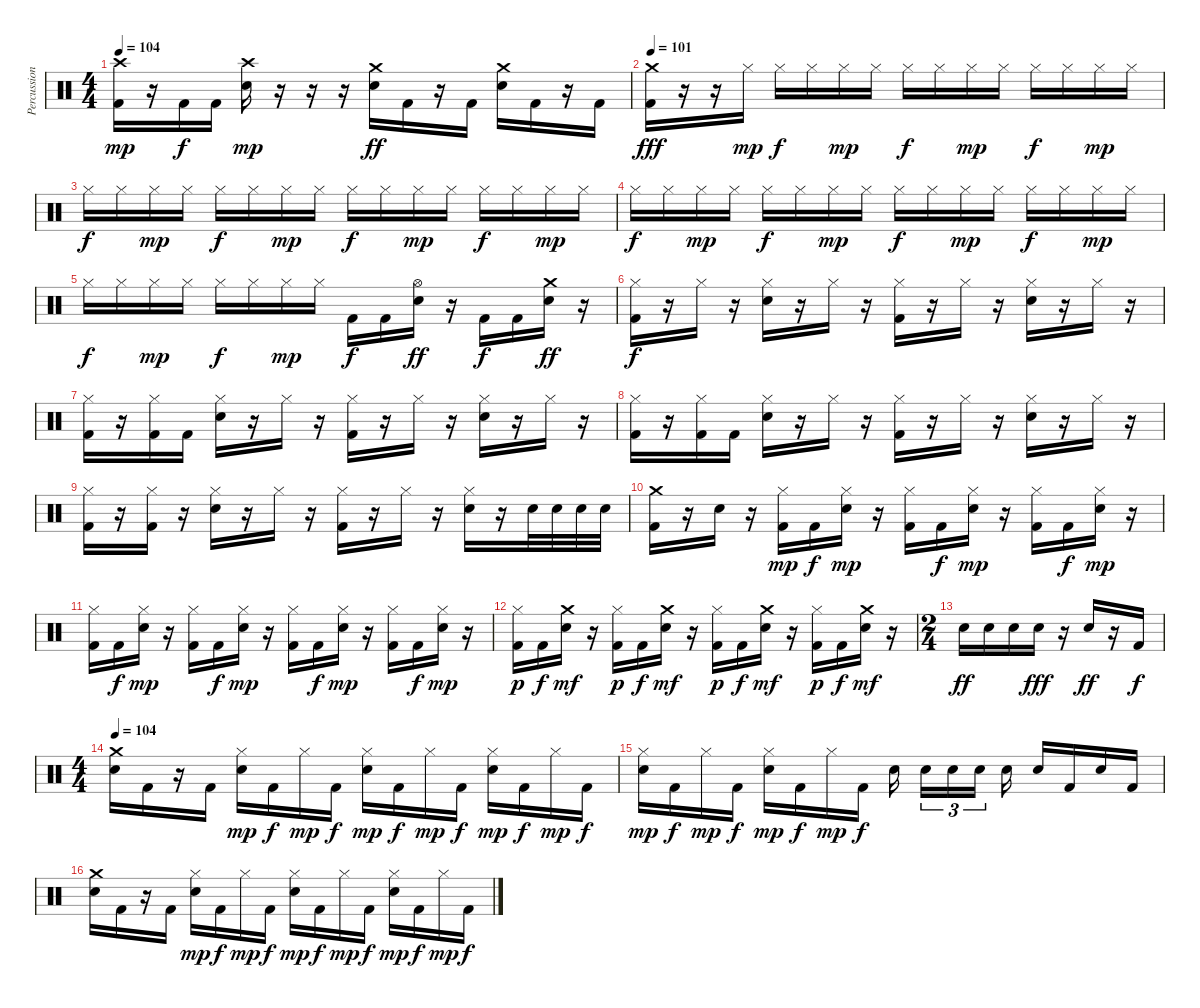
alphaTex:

\track ("Percussion" "Percussion") {instrument percussion}
\staff {score}
\articulation defaults
\ts (4 4)
\tempo 104
\clef neutral
\ks c
("Kick (hit) 2" "Crash high (hit)").16{dy mp} r.16 "Kick (hit) 2".16{dy f} "Kick (hit) 2".16 ("Electric Snare (hit)" "Crash high (hit)").16{dy mp} r.16 r.16 r.16 ("Electric Snare (hit)" "Crash medium (hit)").16{dy ff} "Kick (hit) 2".16 r.16 "Kick (hit) 2".16 ("Electric Snare (hit)" "Crash medium (hit)").16 "Kick (hit) 2".16 r.16 "Kick (hit) 2".16 |
\tempo 101
("Kick (hit) 2" "Crash medium (hit)").16{dy fff} r.16 r.16 "Hi-Hat (closed)".16{dy mp} "Hi-Hat (closed)".16{dy f} "Hi-Hat (closed)".16 "Hi-Hat (closed)".16{dy mp} "Hi-Hat (closed)".16 "Hi-Hat (closed)".16{dy f} "Hi-Hat (closed)".16 "Hi-Hat (closed)".16{dy mp} "Hi-Hat (closed)".16 "Hi-Hat (closed)".16{dy f} "Hi-Hat (closed)".16 "Hi-Hat (closed)".16{dy mp} "Hi-Hat (closed)".16 |
"Hi-Hat (closed)".16{dy f} "Hi-Hat (closed)".16 "Hi-Hat (closed)".16{dy mp} "Hi-Hat (closed)".16 "Hi-Hat (closed)".16{dy f} "Hi-Hat (closed)".16 "Hi-Hat (closed)".16{dy mp} "Hi-Hat (closed)".16 "Hi-Hat (closed)".16{dy f} "Hi-Hat (closed)".16 "Hi-Hat (closed)".16{dy mp} "Hi-Hat (closed)".16 "Hi-Hat (closed)".16{dy f} "Hi-Hat (closed)".16 "Hi-Hat (closed)".16{dy mp} "Hi-Hat (closed)".16 |
"Hi-Hat (closed)".16{dy f} "Hi-Hat (closed)".16 "Hi-Hat (closed)".16{dy mp} "Hi-Hat (closed)".16 "Hi-Hat (closed)".16{dy f} "Hi-Hat (closed)".16 "Hi-Hat (closed)".16{dy mp} "Hi-Hat (closed)".16 "Hi-Hat (closed)".16{dy f} "Hi-Hat (closed)".16 "Hi-Hat (closed)".16{dy mp} "Hi-Hat (closed)".16 "Hi-Hat (closed)".16{dy f} "Hi-Hat (closed)".16 "Hi-Hat (closed)".16{dy mp} "Hi-Hat (closed)".16 |
"Hi-Hat (closed)".16{dy f} "Hi-Hat (closed)".16 "Hi-Hat (closed)".16{dy mp} "Hi-Hat (closed)".16 "Hi-Hat (closed)".16{dy f} "Hi-Hat (closed)".16 "Hi-Hat (closed)".16{dy mp} "Hi-Hat (closed)".16 "Kick (hit) 2".16{dy f} "Kick (hit) 2".16 ("Electric Snare (hit)" "Hi-Hat (open)").16{dy ff} r.16 "Kick (hit) 2".16{dy f} "Kick (hit) 2".16 ("Electric Snare (hit)" "Crash medium (hit)").16{dy ff} r.16 |
("Kick (hit) 2" "Hi-Hat (closed)").16{dy f} r.16 "Hi-Hat (closed)".16 r.16 ("Electric Snare (hit)" "Hi-Hat (closed)").16 r.16 "Hi-Hat (closed)".16 r.16 ("Kick (hit) 2" "Hi-Hat (closed)").16 r.16 "Hi-Hat (closed)".16 r.16 ("Electric Snare (hit)" "Hi-Hat (closed)").16 r.16 "Hi-Hat (closed)".16 r.16 |
("Kick (hit) 2" "Hi-Hat (closed)").16 r.16 ("Kick (hit) 2" "Hi-Hat (closed)").16 "Kick (hit) 2".16 ("Electric Snare (hit)" "Hi-Hat (closed)").16 r.16 "Hi-Hat (closed)".16 r.16 ("Kick (hit) 2" "Hi-Hat (closed)").16 r.16 "Hi-Hat (closed)".16 r.16 ("Electric Snare (hit)" "Hi-Hat (closed)").16 r.16 "Hi-Hat (closed)".16 r.16 |
("Kick (hit) 2" "Hi-Hat (closed)").16 r.16 ("Kick (hit) 2" "Hi-Hat (closed)").16 "Kick (hit) 2".16 ("Electric Snare (hit)" "Hi-Hat (closed)").16 r.16 "Hi-Hat (closed)".16 r.16 ("Kick (hit) 2" "Hi-Hat (closed)").16 r.16 "Hi-Hat (closed)".16 r.16 ("Electric Snare (hit)" "Hi-Hat (closed)").16 r.16 "Hi-Hat (closed)".16 r.16 |
("Kick (hit) 2" "Hi-Hat (closed)").16 r.16 ("Kick (hit) 2" "Hi-Hat (closed)").16 r.16 ("Electric Snare (hit)" "Hi-Hat (closed)").16 r.16 "Hi-Hat (closed)".16 r.16 ("Kick (hit) 2" "Hi-Hat (closed)").16 r.16 "Hi-Hat (closed)".16 r.16 ("Electric Snare (hit)" "Hi-Hat (closed)").16 r.16 "Electric Snare (hit)".32 "Electric Snare (hit)".32 "Electric Snare (hit)".32 "Electric Snare (hit)".32 |
("Kick (hit) 2" "Crash medium (hit)").16 r.16 "Electric Snare (hit)".16 r.16 ("Kick (hit) 2" "Hi-Hat (closed)").16{dy mp} "Kick (hit) 2".16{dy f} ("Electric Snare (hit)" "Hi-Hat (closed)").16{dy mp} r.16 ("Kick (hit) 2" "Hi-Hat (closed)").16 "Kick (hit) 2".16{dy f} ("Electric Snare (hit)" "Hi-Hat (closed)").16{dy mp} r.16 ("Kick (hit) 2" "Hi-Hat (closed)").16 "Kick (hit) 2".16{dy f} ("Electric Snare (hit)" "Hi-Hat (closed)").16{dy mp} r.16 |
("Kick (hit) 2" "Hi-Hat (closed)").16 "Kick (hit) 2".16{dy f} ("Electric Snare (hit)" "Hi-Hat (closed)").16{dy mp} r.16 ("Kick (hit) 2" "Hi-Hat (closed)").16 "Kick (hit) 2".16{dy f} ("Electric Snare (hit)" "Hi-Hat (closed)").16{dy mp} r.16 ("Kick (hit) 2" "Hi-Hat (closed)").16 "Kick (hit) 2".16{dy f} ("Electric Snare (hit)" "Hi-Hat (closed)").16{dy mp} r.16 ("Kick (hit) 2" "Hi-Hat (closed)").16 "Kick (hit) 2".16{dy f} ("Electric Snare (hit)" "Hi-Hat (closed)").16{dy mp} r.16 |
("Kick (hit) 2" "Hi-Hat (closed)").16{dy p} "Kick (hit) 2".16{dy f} ("Electric Snare (hit)" "Crash medium (hit)").16{dy mf} r.16 ("Kick (hit) 2" "Hi-Hat (closed)").16{dy p} "Kick (hit) 2".16{dy f} ("Electric Snare (hit)" "Crash medium (hit)").16{dy mf} r.16 ("Kick (hit) 2" "Hi-Hat (closed)").16{dy p} "Kick (hit) 2".16{dy f} ("Electric Snare (hit)" "Crash medium (hit)").16{dy mf} r.16 ("Kick (hit) 2" "Hi-Hat (closed)").16{dy p} "Kick (hit) 2".16{dy f} ("Electric Snare (hit)" "Crash medium (hit)").16{dy mf} r.16 |
\ts (2 4)
"Electric Snare (hit)".16{dy ff} "Electric Snare (hit)".16 "Electric Snare (hit)".16 "Electric Snare (hit)".16{dy fff} r.16 "Electric Snare (hit)".16{dy ff} r.16 "Kick (hit) 2".16{dy f} |
\ts (4 4)
\tempo 104
("Electric Snare (hit)" "Crash medium (hit)").16 "Kick (hit) 2".16 r.16 "Kick (hit) 2".16 ("Electric Snare (hit)" "Hi-Hat (closed)").16{dy mp} "Kick (hit) 2".16{dy f} "Hi-Hat (closed)".16{dy mp} "Kick (hit) 2".16{dy f} ("Electric Snare (hit)" "Hi-Hat (closed)").16{dy mp} "Kick (hit) 2".16{dy f} "Hi-Hat (closed)".16{dy mp} "Kick (hit) 2".16{dy f} ("Electric Snare (hit)" "Hi-Hat (closed)").16{dy mp} "Kick (hit) 2".16{dy f} "Hi-Hat (closed)".16{dy mp} "Kick (hit) 2".16{dy f} |
("Electric Snare (hit)" "Hi-Hat (closed)").16{dy mp} "Kick (hit) 2".16{dy f} "Hi-Hat (closed)".16{dy mp} "Kick (hit) 2".16{dy f} ("Electric Snare (hit)" "Hi-Hat (closed)").16{dy mp} "Kick (hit) 2".16{dy f} "Hi-Hat (closed)".16{dy mp} "Kick (hit) 2".16{dy f} "Electric Snare (hit)".16 "Electric Snare (hit)".16{tu (3 2)} "Electric Snare (hit)".16{tu (3 2)} "Electric Snare (hit)".16{tu (3 2)} "Electric Snare (hit)".16 "Electric Snare (hit)".16 "Kick (hit) 2".16 "Electric Snare (hit)".16 "Kick (hit) 2".16 |
("Electric Snare (hit)" "Crash medium (hit)").16 "Kick (hit) 2".16 r.16 "Kick (hit) 2".16 ("Electric Snare (hit)" "Hi-Hat (closed)").16{dy mp} "Kick (hit) 2".16{dy f} "Hi-Hat (closed)".16{dy mp} "Kick (hit) 2".16{dy f} ("Electric Snare (hit)" "Hi-Hat (closed)").16{dy mp} "Kick (hit) 2".16{dy f} "Hi-Hat (closed)".16{dy mp} "Kick (hit) 2".16{dy f} ("Electric Snare (hit)" "Hi-Hat (closed)").16{dy mp} "Kick (hit) 2".16{dy f} "Hi-Hat (closed)".16{dy mp} "Kick (hit) 2".16{dy f}
